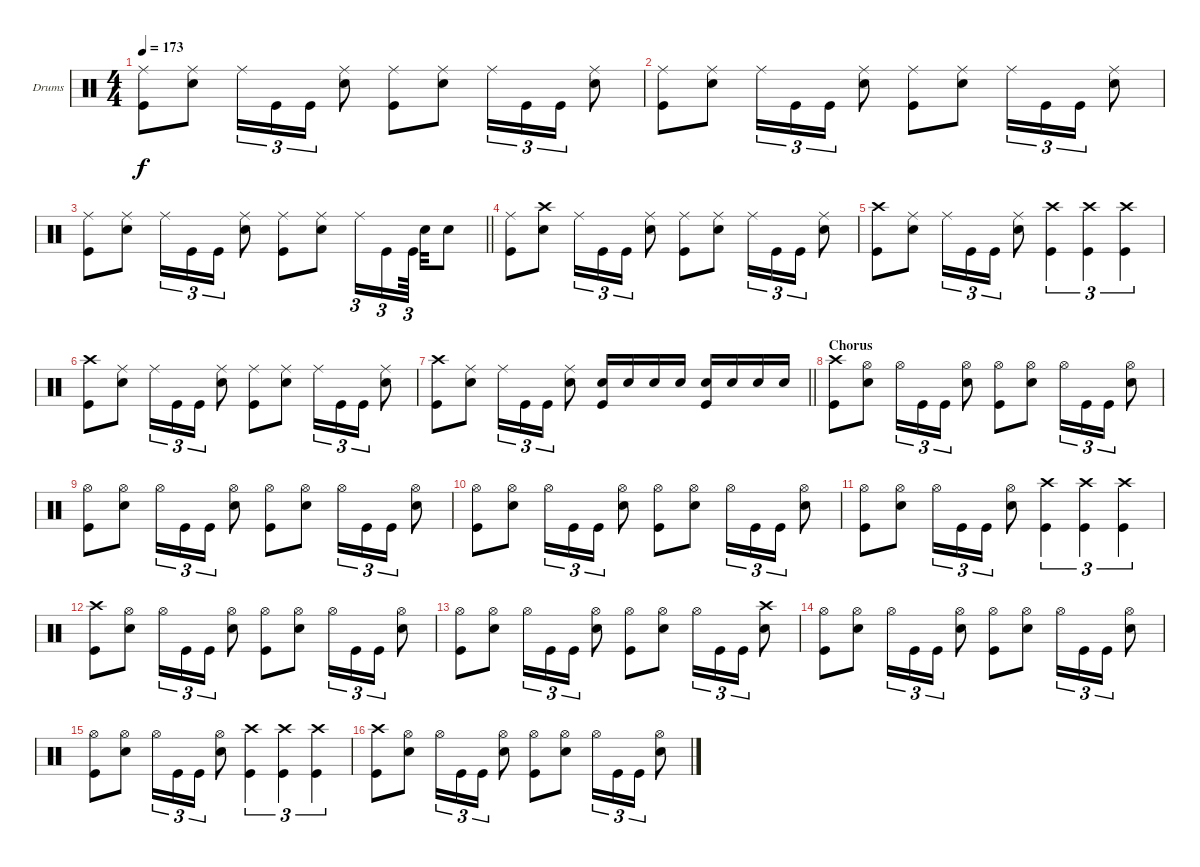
\bracketExtendMode groupsimilarinstruments
\firstSystemTrackNameOrientation horizontal
\otherSystemsTrackNameOrientation horizontal
\track ("Drums" "Drums") {instrument percussion}
\staff {score}
\articulation defaults
\ts (4 4)
\tempo 173
\clef neutral
\ks c
("Kick (hit)" "Ride (middle)").8{dy f} ("Snare (hit) 2" "Ride (middle)").8 "Ride (middle)".16{tu (3 2)} "Kick (hit)".16{tu (3 2)} "Kick (hit)".16{tu (3 2)} ("Snare (hit) 2" "Ride (middle)").8 ("Kick (hit)" "Ride (middle)").8 ("Snare (hit) 2" "Ride (middle)").8 "Ride (middle)".16{tu (3 2)} "Kick (hit)".16{tu (3 2)} "Kick (hit)".16{tu (3 2)} ("Snare (hit) 2" "Ride (middle)").8 |
("Kick (hit)" "Ride (middle)").8 ("Snare (hit) 2" "Ride (middle)").8 "Ride (middle)".16{tu (3 2)} "Kick (hit)".16{tu (3 2)} "Kick (hit)".16{tu (3 2)} ("Snare (hit) 2" "Ride (middle)").8 ("Kick (hit)" "Ride (middle)").8 ("Snare (hit) 2" "Ride (middle)").8 "Ride (middle)".16{tu (3 2)} "Kick (hit)".16{tu (3 2)} "Kick (hit)".16{tu (3 2)} ("Snare (hit) 2" "Ride (middle)").8 |
\barLineRight lightlight
("Kick (hit)" "Ride (middle)").8 ("Snare (hit) 2" "Ride (middle)").8 "Ride (middle)".16{tu (3 2)} "Kick (hit)".16{tu (3 2)} "Kick (hit)".16{tu (3 2)} ("Snare (hit) 2" "Ride (middle)").8 ("Kick (hit)" "Ride (middle)").8 ("Snare (hit) 2" "Ride (middle)").8 "Ride (middle)".16{tu (3 2)} "Kick (hit)".16{tu (3 2)} "Kick (hit)".64{tu (3 2)} "Snare (hit) 2".32 "Snare (hit) 2".8 |
("Kick (hit)" "Ride (middle)").8 ("Snare (hit) 2" "Crash high (hit)").8 "Ride (middle)".16{tu (3 2)} "Kick (hit)".16{tu (3 2)} "Kick (hit)".16{tu (3 2)} ("Snare (hit) 2" "Ride (middle)").8 ("Kick (hit)" "Ride (middle)").8 ("Snare (hit) 2" "Ride (middle)").8 "Ride (middle)".16{tu (3 2)} "Kick (hit)".16{tu (3 2)} "Kick (hit)".16{tu (3 2)} ("Snare (hit) 2" "Ride (middle)").8 |
("Kick (hit)" "Crash high (hit)").8 ("Snare (hit) 2" "Ride (middle)").8 "Ride (middle)".16{tu (3 2)} "Kick (hit)".16{tu (3 2)} "Kick (hit)".16{tu (3 2)} ("Snare (hit) 2" "Ride (middle)").8 ("Crash high (hit)" "Kick (hit)").4{tu (3 2)} ("Crash high (hit)" "Kick (hit)").4{tu (3 2)} ("Crash high (hit)" "Kick (hit)").4{tu (3 2)} |
("Crash high (hit)" "Kick (hit)").8 ("Snare (hit) 2" "Ride (middle)").8 "Ride (middle)".16{tu (3 2)} "Kick (hit)".16{tu (3 2)} "Kick (hit)".16{tu (3 2)} ("Snare (hit) 2" "Ride (middle)").8 ("Kick (hit)" "Ride (middle)").8 ("Snare (hit) 2" "Ride (middle)").8 "Ride (middle)".16{tu (3 2)} "Kick (hit)".16{tu (3 2)} "Kick (hit)".16{tu (3 2)} ("Snare (hit) 2" "Ride (middle)").8 |
\barLineRight lightlight
("Kick (hit)" "Crash high (hit)").8 ("Snare (hit) 2" "Ride (middle)").8 "Ride (middle)".16{tu (3 2)} "Kick (hit)".16{tu (3 2)} "Kick (hit)".16{tu (3 2)} ("Snare (hit) 2" "Ride (middle)").8 ("Snare (hit) 2" "Kick (hit)").16 "Snare (hit) 2".16 "Snare (hit) 2".16 "Snare (hit) 2".16 ("Snare (hit) 2" "Kick (hit)").16 "Snare (hit) 2".16 "Snare (hit) 2".16 "Snare (hit) 2".16 |
\section ("" "Chorus")
("Crash high (hit)" "Kick (hit)").8 ("Hi-Hat (open)" "Snare (hit) 2").8 "Hi-Hat (open)".16{tu (3 2)} "Kick (hit)".16{tu (3 2)} "Kick (hit)".16{tu (3 2)} ("Hi-Hat (open)" "Snare (hit) 2").8 ("Hi-Hat (open)" "Kick (hit)").8 ("Hi-Hat (open)" "Snare (hit) 2").8 "Hi-Hat (open)".16{tu (3 2)} "Kick (hit)".16{tu (3 2)} "Kick (hit)".16{tu (3 2)} ("Hi-Hat (open)" "Snare (hit) 2").8 |
("Hi-Hat (open)" "Kick (hit)").8 ("Hi-Hat (open)" "Snare (hit) 2").8 "Hi-Hat (open)".16{tu (3 2)} "Kick (hit)".16{tu (3 2)} "Kick (hit)".16{tu (3 2)} ("Hi-Hat (open)" "Snare (hit) 2").8 ("Hi-Hat (open)" "Kick (hit)").8 ("Hi-Hat (open)" "Snare (hit) 2").8 "Hi-Hat (open)".16{tu (3 2)} "Kick (hit)".16{tu (3 2)} "Kick (hit)".16{tu (3 2)} ("Hi-Hat (open)" "Snare (hit) 2").8 |
("Hi-Hat (open)" "Kick (hit)").8 ("Hi-Hat (open)" "Snare (hit) 2").8 "Hi-Hat (open)".16{tu (3 2)} "Kick (hit)".16{tu (3 2)} "Kick (hit)".16{tu (3 2)} ("Hi-Hat (open)" "Snare (hit) 2").8 ("Hi-Hat (open)" "Kick (hit)").8 ("Hi-Hat (open)" "Snare (hit) 2").8 "Hi-Hat (open)".16{tu (3 2)} "Kick (hit)".16{tu (3 2)} "Kick (hit)".16{tu (3 2)} ("Hi-Hat (open)" "Snare (hit) 2").8 |
("Hi-Hat (open)" "Kick (hit)").8 ("Hi-Hat (open)" "Snare (hit) 2").8 "Hi-Hat (open)".16{tu (3 2)} "Kick (hit)".16{tu (3 2)} "Kick (hit)".16{tu (3 2)} ("Hi-Hat (open)" "Snare (hit) 2").8 ("Crash high (hit)" "Kick (hit)").4{tu (3 2)} ("Crash high (hit)" "Kick (hit)").4{tu (3 2)} ("Crash high (hit)" "Kick (hit)").4{tu (3 2)} |
("Crash high (hit)" "Kick (hit)").8 ("Hi-Hat (open)" "Snare (hit) 2").8 "Hi-Hat (open)".16{tu (3 2)} "Kick (hit)".16{tu (3 2)} "Kick (hit)".16{tu (3 2)} ("Hi-Hat (open)" "Snare (hit) 2").8 ("Hi-Hat (open)" "Kick (hit)").8 ("Hi-Hat (open)" "Snare (hit) 2").8 "Hi-Hat (open)".16{tu (3 2)} "Kick (hit)".16{tu (3 2)} "Kick (hit)".16{tu (3 2)} ("Hi-Hat (open)" "Snare (hit) 2").8 |
("Hi-Hat (open)" "Kick (hit)").8 ("Hi-Hat (open)" "Snare (hit) 2").8 "Hi-Hat (open)".16{tu (3 2)} "Kick (hit)".16{tu (3 2)} "Kick (hit)".16{tu (3 2)} ("Hi-Hat (open)" "Snare (hit) 2").8 ("Hi-Hat (open)" "Kick (hit)").8 ("Hi-Hat (open)" "Snare (hit) 2").8 "Hi-Hat (open)".16{tu (3 2)} "Kick (hit)".16{tu (3 2)} "Kick (hit)".16{tu (3 2)} ("Snare (hit) 2" "Crash high (hit)").8 |
("Hi-Hat (open)" "Kick (hit)").8 ("Hi-Hat (open)" "Snare (hit) 2").8 "Hi-Hat (open)".16{tu (3 2)} "Kick (hit)".16{tu (3 2)} "Kick (hit)".16{tu (3 2)} ("Hi-Hat (open)" "Snare (hit) 2").8 ("Hi-Hat (open)" "Kick (hit)").8 ("Hi-Hat (open)" "Snare (hit) 2").8 "Hi-Hat (open)".16{tu (3 2)} "Kick (hit)".16{tu (3 2)} "Kick (hit)".16{tu (3 2)} ("Hi-Hat (open)" "Snare (hit) 2").8 |
("Hi-Hat (open)" "Kick (hit)").8 ("Hi-Hat (open)" "Snare (hit) 2").8 "Hi-Hat (open)".16{tu (3 2)} "Kick (hit)".16{tu (3 2)} "Kick (hit)".16{tu (3 2)} ("Hi-Hat (open)" "Snare (hit) 2").8 ("Crash high (hit)" "Kick (hit)").4{tu (3 2)} ("Crash high (hit)" "Kick (hit)").4{tu (3 2)} ("Crash high (hit)" "Kick (hit)").4{tu (3 2)} |
("Crash high (hit)" "Kick (hit)").8 ("Hi-Hat (open)" "Snare (hit) 2").8 "Hi-Hat (open)".16{tu (3 2)} "Kick (hit)".16{tu (3 2)} "Kick (hit)".16{tu (3 2)} ("Hi-Hat (open)" "Snare (hit) 2").8 ("Hi-Hat (open)" "Kick (hit)").8 ("Hi-Hat (open)" "Snare (hit) 2").8 "Hi-Hat (open)".16{tu (3 2)} "Kick (hit)".16{tu (3 2)} "Kick (hit)".16{tu (3 2)} ("Hi-Hat (open)" "Snare (hit) 2").8
